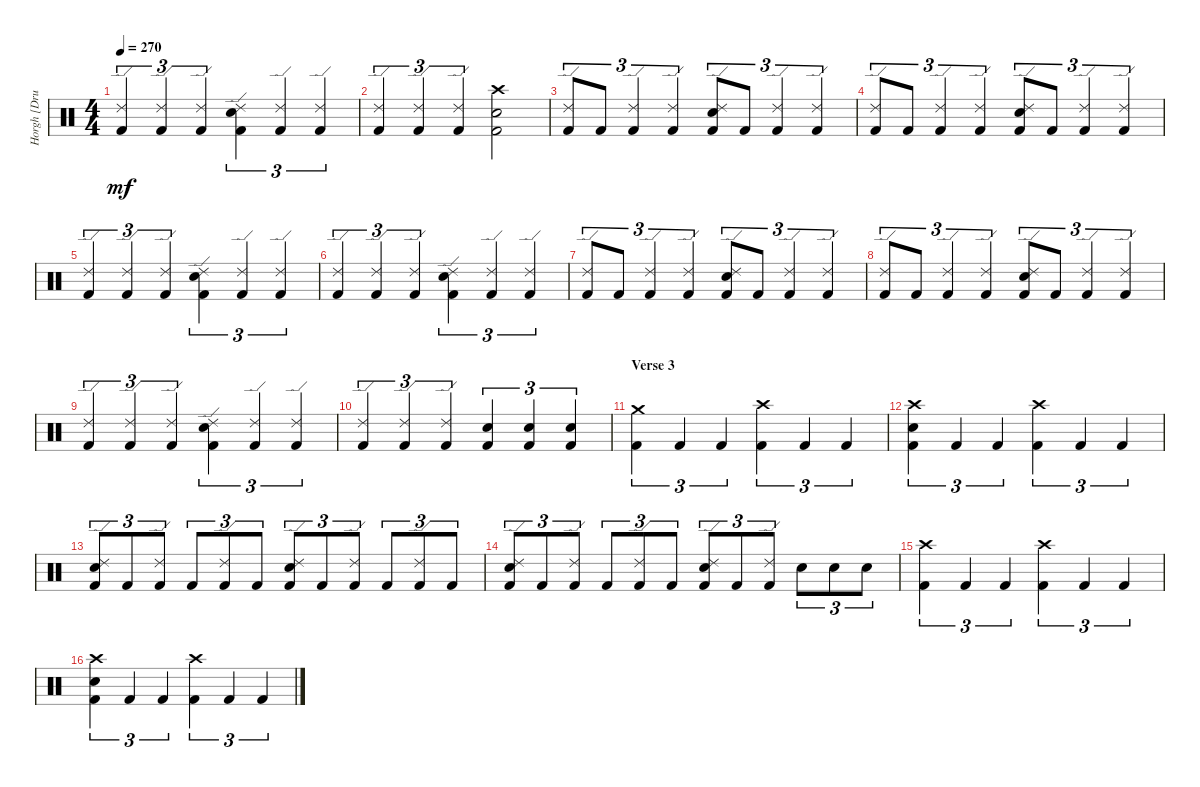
\track ("Horgh [Drums]" "Horgh [Dru") {instrument percussion}
\staff {score}
\articulation defaults
\ts (4 4)
\tempo 270
\clef neutral
\ks c
("Ride (edge) 2" "Kick (hit) 2").4{tu (3 2) dy mf} ("Ride (edge) 2" "Kick (hit) 2").4{tu (3 2)} ("Ride (edge) 2" "Kick (hit) 2").4{tu (3 2)} ("Ride (edge) 2" "Electric Snare (hit)" "Kick (hit) 2").4{tu (3 2)} ("Ride (edge) 2" "Kick (hit) 2").4{tu (3 2)} ("Ride (edge) 2" "Kick (hit) 2").4{tu (3 2)} |
("Ride (edge) 2" "Kick (hit) 2").4{tu (3 2)} ("Ride (edge) 2" "Kick (hit) 2").4{tu (3 2)} ("Ride (edge) 2" "Kick (hit) 2").4{tu (3 2)} ("Crash high (hit)" "Electric Snare (hit)" "Kick (hit) 2").2 |
("Ride (edge) 2" "Kick (hit) 2").8{tu (3 2)} "Kick (hit) 2".8{tu (3 2)} ("Ride (edge) 2" "Kick (hit) 2").4{tu (3 2)} ("Ride (edge) 2" "Kick (hit) 2").4{tu (3 2)} ("Ride (edge) 2" "Electric Snare (hit)" "Kick (hit) 2").8{tu (3 2)} "Kick (hit) 2".8{tu (3 2)} ("Ride (edge) 2" "Kick (hit) 2").4{tu (3 2)} ("Ride (edge) 2" "Kick (hit) 2").4{tu (3 2)} |
("Ride (edge) 2" "Kick (hit) 2").8{tu (3 2)} "Kick (hit) 2".8{tu (3 2)} ("Ride (edge) 2" "Kick (hit) 2").4{tu (3 2)} ("Ride (edge) 2" "Kick (hit) 2").4{tu (3 2)} ("Ride (edge) 2" "Electric Snare (hit)" "Kick (hit) 2").8{tu (3 2)} "Kick (hit) 2".8{tu (3 2)} ("Ride (edge) 2" "Kick (hit) 2").4{tu (3 2)} ("Ride (edge) 2" "Kick (hit) 2").4{tu (3 2)} |
("Ride (edge) 2" "Kick (hit) 2").4{tu (3 2)} ("Ride (edge) 2" "Kick (hit) 2").4{tu (3 2)} ("Ride (edge) 2" "Kick (hit) 2").4{tu (3 2)} ("Ride (edge) 2" "Electric Snare (hit)" "Kick (hit) 2").4{tu (3 2)} ("Ride (edge) 2" "Kick (hit) 2").4{tu (3 2)} ("Ride (edge) 2" "Kick (hit) 2").4{tu (3 2)} |
("Ride (edge) 2" "Kick (hit) 2").4{tu (3 2)} ("Ride (edge) 2" "Kick (hit) 2").4{tu (3 2)} ("Ride (edge) 2" "Kick (hit) 2").4{tu (3 2)} ("Ride (edge) 2" "Electric Snare (hit)" "Kick (hit) 2").4{tu (3 2)} ("Ride (edge) 2" "Kick (hit) 2").4{tu (3 2)} ("Ride (edge) 2" "Kick (hit) 2").4{tu (3 2)} |
("Ride (edge) 2" "Kick (hit) 2").8{tu (3 2)} "Kick (hit) 2".8{tu (3 2)} ("Ride (edge) 2" "Kick (hit) 2").4{tu (3 2)} ("Ride (edge) 2" "Kick (hit) 2").4{tu (3 2)} ("Ride (edge) 2" "Electric Snare (hit)" "Kick (hit) 2").8{tu (3 2)} "Kick (hit) 2".8{tu (3 2)} ("Ride (edge) 2" "Kick (hit) 2").4{tu (3 2)} ("Ride (edge) 2" "Kick (hit) 2").4{tu (3 2)} |
("Ride (edge) 2" "Kick (hit) 2").8{tu (3 2)} "Kick (hit) 2".8{tu (3 2)} ("Ride (edge) 2" "Kick (hit) 2").4{tu (3 2)} ("Ride (edge) 2" "Kick (hit) 2").4{tu (3 2)} ("Ride (edge) 2" "Electric Snare (hit)" "Kick (hit) 2").8{tu (3 2)} "Kick (hit) 2".8{tu (3 2)} ("Ride (edge) 2" "Kick (hit) 2").4{tu (3 2)} ("Ride (edge) 2" "Kick (hit) 2").4{tu (3 2)} |
("Ride (edge) 2" "Kick (hit) 2").4{tu (3 2)} ("Ride (edge) 2" "Kick (hit) 2").4{tu (3 2)} ("Ride (edge) 2" "Kick (hit) 2").4{tu (3 2)} ("Ride (edge) 2" "Electric Snare (hit)" "Kick (hit) 2").4{tu (3 2)} ("Ride (edge) 2" "Kick (hit) 2").4{tu (3 2)} ("Ride (edge) 2" "Kick (hit) 2").4{tu (3 2)} |
("Ride (edge) 2" "Kick (hit) 2").4{tu (3 2)} ("Ride (edge) 2" "Kick (hit) 2").4{tu (3 2)} ("Ride (edge) 2" "Kick (hit) 2").4{tu (3 2)} ("Electric Snare (hit)" "Kick (hit) 2").4{tu (3 2)} ("Electric Snare (hit)" "Kick (hit) 2").4{tu (3 2)} ("Electric Snare (hit)" "Kick (hit) 2").4{tu (3 2)} |
\section ("" "Verse 3")
("Crash medium (hit)" "Kick (hit) 2").4{tu (3 2)} "Kick (hit) 2".4{tu (3 2)} "Kick (hit) 2".4{tu (3 2)} ("Crash high (hit)" "Kick (hit) 2").4{tu (3 2)} "Kick (hit) 2".4{tu (3 2)} "Kick (hit) 2".4{tu (3 2)} |
("Crash high (hit)" "Electric Snare (hit)" "Kick (hit) 2").4{tu (3 2)} "Kick (hit) 2".4{tu (3 2)} "Kick (hit) 2".4{tu (3 2)} ("Crash high (hit)" "Kick (hit) 2").4{tu (3 2)} "Kick (hit) 2".4{tu (3 2)} "Kick (hit) 2".4{tu (3 2)} |
("Ride (edge) 2" "Electric Snare (hit)" "Kick (hit) 2").8{tu (3 2)} "Kick (hit) 2".8{tu (3 2)} ("Ride (edge) 2" "Kick (hit) 2").8{tu (3 2)} "Kick (hit) 2".8{tu (3 2)} ("Ride (edge) 2" "Kick (hit) 2").8{tu (3 2)} "Kick (hit) 2".8{tu (3 2)} ("Ride (edge) 2" "Electric Snare (hit)" "Kick (hit) 2").8{tu (3 2)} "Kick (hit) 2".8{tu (3 2)} ("Ride (edge) 2" "Kick (hit) 2").8{tu (3 2)} "Kick (hit) 2".8{tu (3 2)} ("Ride (edge) 2" "Kick (hit) 2").8{tu (3 2)} "Kick (hit) 2".8{tu (3 2)} |
("Ride (edge) 2" "Electric Snare (hit)" "Kick (hit) 2").8{tu (3 2)} "Kick (hit) 2".8{tu (3 2)} ("Ride (edge) 2" "Kick (hit) 2").8{tu (3 2)} "Kick (hit) 2".8{tu (3 2)} ("Ride (edge) 2" "Kick (hit) 2").8{tu (3 2)} "Kick (hit) 2".8{tu (3 2)} ("Ride (edge) 2" "Electric Snare (hit)" "Kick (hit) 2").8{tu (3 2)} "Kick (hit) 2".8{tu (3 2)} ("Ride (edge) 2" "Kick (hit) 2").8{tu (3 2)} "Electric Snare (hit)".8{tu (3 2)} "Electric Snare (hit)".8{tu (3 2)} "Electric Snare (hit)".8{tu (3 2)} |
("Crash high (hit)" "Kick (hit) 2").4{tu (3 2)} "Kick (hit) 2".4{tu (3 2)} "Kick (hit) 2".4{tu (3 2)} ("Crash high (hit)" "Kick (hit) 2").4{tu (3 2)} "Kick (hit) 2".4{tu (3 2)} "Kick (hit) 2".4{tu (3 2)} |
("Crash high (hit)" "Electric Snare (hit)" "Kick (hit) 2").4{tu (3 2)} "Kick (hit) 2".4{tu (3 2)} "Kick (hit) 2".4{tu (3 2)} ("Crash high (hit)" "Kick (hit) 2").4{tu (3 2)} "Kick (hit) 2".4{tu (3 2)} "Kick (hit) 2".4{tu (3 2)}
